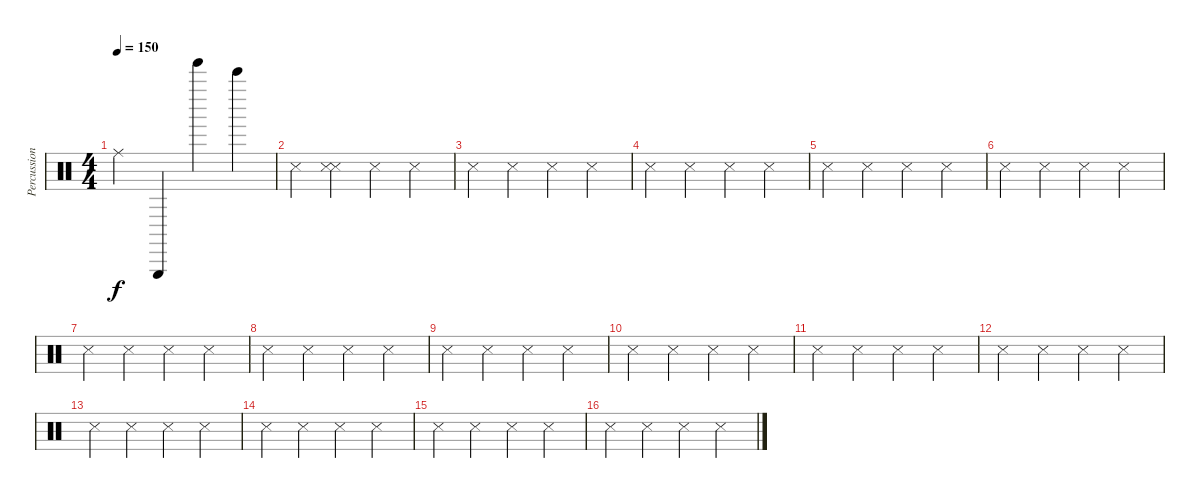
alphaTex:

\track ("Percussion" "Percussion") {instrument percussion}
\staff {score}
\articulation defaults
\ts (4 4)
\tempo 150
\clef neutral
\ks c "Ride (middle)".4{dy f} "Triangle (hit)".4 "Tinkle Bell (hit)".4 "Bell Tree (hit)".4
|
"Metronome (hit)".4 ("Metronome (hit)" "Metronome (hit)").4 "Metronome (hit)".4 "Metronome (hit)".4 |
"Metronome (hit)".4 "Metronome (hit)".4 "Metronome (hit)".4 "Metronome (hit)".4 |
"Metronome (hit)".4 "Metronome (hit)".4 "Metronome (hit)".4 "Metronome (hit)".4 |
"Metronome (hit)".4 "Metronome (hit)".4 "Metronome (hit)".4 "Metronome (hit)".4 |
"Metronome (hit)".4 "Metronome (hit)".4 "Metronome (hit)".4 "Metronome (hit)".4 |
"Metronome (hit)".4 "Metronome (hit)".4 "Metronome (hit)".4 "Metronome (hit)".4 |
"Metronome (hit)".4 "Metronome (hit)".4 "Metronome (hit)".4 "Metronome (hit)".4 |
"Metronome (hit)".4 "Metronome (hit)".4 "Metronome (hit)".4 "Metronome (hit)".4 |
"Metronome (hit)".4 "Metronome (hit)".4 "Metronome (hit)".4 "Metronome (hit)".4 |
"Metronome (hit)".4 "Metronome (hit)".4 "Metronome (hit)".4 "Metronome (hit)".4 |
"Metronome (hit)".4 "Metronome (hit)".4 "Metronome (hit)".4 "Metronome (hit)".4 |
"Metronome (hit)".4 "Metronome (hit)".4 "Metronome (hit)".4 "Metronome (hit)".4 |
"Metronome (hit)".4 "Metronome (hit)".4 "Metronome (hit)".4 "Metronome (hit)".4 |
"Metronome (hit)".4 "Metronome (hit)".4 "Metronome (hit)".4 "Metronome (hit)".4 |
"Metronome (hit)".4 "Metronome (hit)".4 "Metronome (hit)".4 "Metronome (hit)".4
